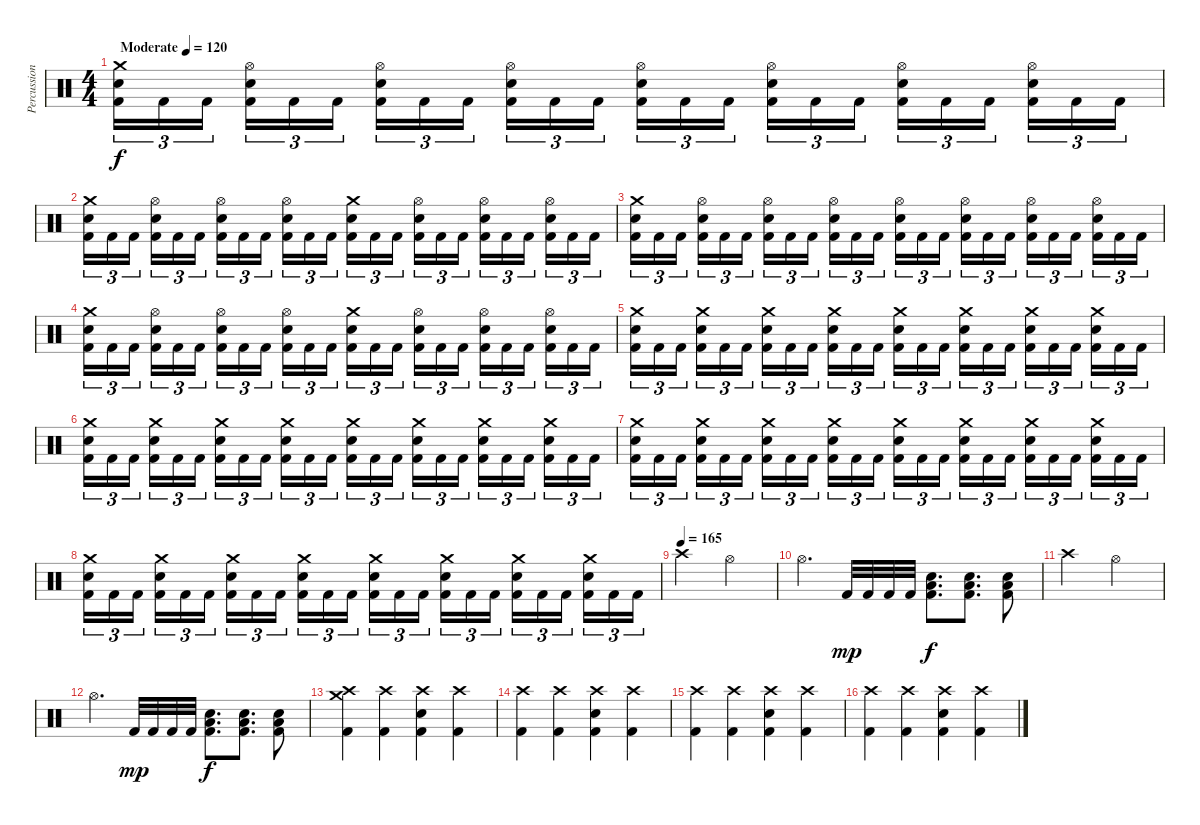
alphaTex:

\track ("Percussion" "Percussion") {instrument percussion}
\staff {score}
\articulation defaults
\ts (4 4)
\tempo (120 "Moderate")
\clef neutral
\ks c
("Crash medium (hit)" "Electric Snare (hit)" "Kick (hit) 2").16{tu (3 2) dy f} "Kick (hit) 2".16{tu (3 2)} "Kick (hit) 2".16{tu (3 2) beam splitsecondary} ("Hi-Hat (open)" "Electric Snare (hit)" "Kick (hit) 2").16{tu (3 2)} "Kick (hit) 2".16{tu (3 2)} "Kick (hit) 2".16{tu (3 2)} ("Hi-Hat (open)" "Electric Snare (hit)" "Kick (hit) 2").16{tu (3 2)} "Kick (hit) 2".16{tu (3 2)} "Kick (hit) 2".16{tu (3 2) beam splitsecondary} ("Hi-Hat (open)" "Electric Snare (hit)" "Kick (hit) 2").16{tu (3 2)} "Kick (hit) 2".16{tu (3 2)} "Kick (hit) 2".16{tu (3 2)} ("Hi-Hat (open)" "Electric Snare (hit)" "Kick (hit) 2").16{tu (3 2)} "Kick (hit) 2".16{tu (3 2)} "Kick (hit) 2".16{tu (3 2) beam splitsecondary} ("Hi-Hat (open)" "Electric Snare (hit)" "Kick (hit) 2").16{tu (3 2)} "Kick (hit) 2".16{tu (3 2)} "Kick (hit) 2".16{tu (3 2)} ("Hi-Hat (open)" "Electric Snare (hit)" "Kick (hit) 2").16{tu (3 2)} "Kick (hit) 2".16{tu (3 2)} "Kick (hit) 2".16{tu (3 2) beam splitsecondary} ("Hi-Hat (open)" "Electric Snare (hit)" "Kick (hit) 2").16{tu (3 2)} "Kick (hit) 2".16{tu (3 2)} "Kick (hit) 2".16{tu (3 2)} |
("Crash medium (hit)" "Electric Snare (hit)" "Kick (hit) 2").16{tu (3 2)} "Kick (hit) 2".16{tu (3 2)} "Kick (hit) 2".16{tu (3 2) beam splitsecondary} ("Hi-Hat (open)" "Electric Snare (hit)" "Kick (hit) 2").16{tu (3 2)} "Kick (hit) 2".16{tu (3 2)} "Kick (hit) 2".16{tu (3 2)} ("Hi-Hat (open)" "Electric Snare (hit)" "Kick (hit) 2").16{tu (3 2)} "Kick (hit) 2".16{tu (3 2)} "Kick (hit) 2".16{tu (3 2) beam splitsecondary} ("Hi-Hat (open)" "Electric Snare (hit)" "Kick (hit) 2").16{tu (3 2)} "Kick (hit) 2".16{tu (3 2)} "Kick (hit) 2".16{tu (3 2)} ("Crash medium (hit)" "Electric Snare (hit)" "Kick (hit) 2").16{tu (3 2)} "Kick (hit) 2".16{tu (3 2)} "Kick (hit) 2".16{tu (3 2) beam splitsecondary} ("Hi-Hat (open)" "Electric Snare (hit)" "Kick (hit) 2").16{tu (3 2)} "Kick (hit) 2".16{tu (3 2)} "Kick (hit) 2".16{tu (3 2)} ("Hi-Hat (open)" "Electric Snare (hit)" "Kick (hit) 2").16{tu (3 2)} "Kick (hit) 2".16{tu (3 2)} "Kick (hit) 2".16{tu (3 2) beam splitsecondary} ("Hi-Hat (open)" "Electric Snare (hit)" "Kick (hit) 2").16{tu (3 2)} "Kick (hit) 2".16{tu (3 2)} "Kick (hit) 2".16{tu (3 2)} |
("Crash medium (hit)" "Electric Snare (hit)" "Kick (hit) 2").16{tu (3 2)} "Kick (hit) 2".16{tu (3 2)} "Kick (hit) 2".16{tu (3 2) beam splitsecondary} ("Hi-Hat (open)" "Electric Snare (hit)" "Kick (hit) 2").16{tu (3 2)} "Kick (hit) 2".16{tu (3 2)} "Kick (hit) 2".16{tu (3 2)} ("Hi-Hat (open)" "Electric Snare (hit)" "Kick (hit) 2").16{tu (3 2)} "Kick (hit) 2".16{tu (3 2)} "Kick (hit) 2".16{tu (3 2) beam splitsecondary} ("Hi-Hat (open)" "Electric Snare (hit)" "Kick (hit) 2").16{tu (3 2)} "Kick (hit) 2".16{tu (3 2)} "Kick (hit) 2".16{tu (3 2)} ("Hi-Hat (open)" "Electric Snare (hit)" "Kick (hit) 2").16{tu (3 2)} "Kick (hit) 2".16{tu (3 2)} "Kick (hit) 2".16{tu (3 2) beam splitsecondary} ("Hi-Hat (open)" "Electric Snare (hit)" "Kick (hit) 2").16{tu (3 2)} "Kick (hit) 2".16{tu (3 2)} "Kick (hit) 2".16{tu (3 2)} ("Hi-Hat (open)" "Electric Snare (hit)" "Kick (hit) 2").16{tu (3 2)} "Kick (hit) 2".16{tu (3 2)} "Kick (hit) 2".16{tu (3 2) beam splitsecondary} ("Hi-Hat (open)" "Electric Snare (hit)" "Kick (hit) 2").16{tu (3 2)} "Kick (hit) 2".16{tu (3 2)} "Kick (hit) 2".16{tu (3 2)} |
("Crash medium (hit)" "Electric Snare (hit)" "Kick (hit) 2").16{tu (3 2)} "Kick (hit) 2".16{tu (3 2)} "Kick (hit) 2".16{tu (3 2) beam splitsecondary} ("Hi-Hat (open)" "Electric Snare (hit)" "Kick (hit) 2").16{tu (3 2)} "Kick (hit) 2".16{tu (3 2)} "Kick (hit) 2".16{tu (3 2)} ("Hi-Hat (open)" "Electric Snare (hit)" "Kick (hit) 2").16{tu (3 2)} "Kick (hit) 2".16{tu (3 2)} "Kick (hit) 2".16{tu (3 2) beam splitsecondary} ("Hi-Hat (open)" "Electric Snare (hit)" "Kick (hit) 2").16{tu (3 2)} "Kick (hit) 2".16{tu (3 2)} "Kick (hit) 2".16{tu (3 2)} ("Crash medium (hit)" "Electric Snare (hit)" "Kick (hit) 2").16{tu (3 2)} "Kick (hit) 2".16{tu (3 2)} "Kick (hit) 2".16{tu (3 2) beam splitsecondary} ("Hi-Hat (open)" "Electric Snare (hit)" "Kick (hit) 2").16{tu (3 2)} "Kick (hit) 2".16{tu (3 2)} "Kick (hit) 2".16{tu (3 2)} ("Hi-Hat (open)" "Electric Snare (hit)" "Kick (hit) 2").16{tu (3 2)} "Kick (hit) 2".16{tu (3 2)} "Kick (hit) 2".16{tu (3 2) beam splitsecondary} ("Hi-Hat (open)" "Electric Snare (hit)" "Kick (hit) 2").16{tu (3 2)} "Kick (hit) 2".16{tu (3 2)} "Kick (hit) 2".16{tu (3 2)} |
("Crash medium (hit)" "Electric Snare (hit)" "Kick (hit) 2").16{tu (3 2)} "Kick (hit) 2".16{tu (3 2)} "Kick (hit) 2".16{tu (3 2) beam splitsecondary} ("Crash medium (hit)" "Electric Snare (hit)" "Kick (hit) 2").16{tu (3 2)} "Kick (hit) 2".16{tu (3 2)} "Kick (hit) 2".16{tu (3 2)} ("Crash medium (hit)" "Electric Snare (hit)" "Kick (hit) 2").16{tu (3 2)} "Kick (hit) 2".16{tu (3 2)} "Kick (hit) 2".16{tu (3 2) beam splitsecondary} ("Crash medium (hit)" "Electric Snare (hit)" "Kick (hit) 2").16{tu (3 2)} "Kick (hit) 2".16{tu (3 2)} "Kick (hit) 2".16{tu (3 2)} ("Crash medium (hit)" "Electric Snare (hit)" "Kick (hit) 2").16{tu (3 2)} "Kick (hit) 2".16{tu (3 2)} "Kick (hit) 2".16{tu (3 2) beam splitsecondary} ("Crash medium (hit)" "Electric Snare (hit)" "Kick (hit) 2").16{tu (3 2)} "Kick (hit) 2".16{tu (3 2)} "Kick (hit) 2".16{tu (3 2)} ("Crash medium (hit)" "Electric Snare (hit)" "Kick (hit) 2").16{tu (3 2)} "Kick (hit) 2".16{tu (3 2)} "Kick (hit) 2".16{tu (3 2) beam splitsecondary} ("Crash medium (hit)" "Electric Snare (hit)" "Kick (hit) 2").16{tu (3 2)} "Kick (hit) 2".16{tu (3 2)} "Kick (hit) 2".16{tu (3 2)} |
("Crash medium (hit)" "Electric Snare (hit)" "Kick (hit) 2").16{tu (3 2)} "Kick (hit) 2".16{tu (3 2)} "Kick (hit) 2".16{tu (3 2) beam splitsecondary} ("Crash medium (hit)" "Electric Snare (hit)" "Kick (hit) 2").16{tu (3 2)} "Kick (hit) 2".16{tu (3 2)} "Kick (hit) 2".16{tu (3 2)} ("Crash medium (hit)" "Electric Snare (hit)" "Kick (hit) 2").16{tu (3 2)} "Kick (hit) 2".16{tu (3 2)} "Kick (hit) 2".16{tu (3 2) beam splitsecondary} ("Crash medium (hit)" "Electric Snare (hit)" "Kick (hit) 2").16{tu (3 2)} "Kick (hit) 2".16{tu (3 2)} "Kick (hit) 2".16{tu (3 2)} ("Crash medium (hit)" "Electric Snare (hit)" "Kick (hit) 2").16{tu (3 2)} "Kick (hit) 2".16{tu (3 2)} "Kick (hit) 2".16{tu (3 2) beam splitsecondary} ("Crash medium (hit)" "Electric Snare (hit)" "Kick (hit) 2").16{tu (3 2)} "Kick (hit) 2".16{tu (3 2)} "Kick (hit) 2".16{tu (3 2)} ("Crash medium (hit)" "Electric Snare (hit)" "Kick (hit) 2").16{tu (3 2)} "Kick (hit) 2".16{tu (3 2)} "Kick (hit) 2".16{tu (3 2) beam splitsecondary} ("Crash medium (hit)" "Electric Snare (hit)" "Kick (hit) 2").16{tu (3 2)} "Kick (hit) 2".16{tu (3 2)} "Kick (hit) 2".16{tu (3 2)} |
("Crash medium (hit)" "Electric Snare (hit)" "Kick (hit) 2").16{tu (3 2)} "Kick (hit) 2".16{tu (3 2)} "Kick (hit) 2".16{tu (3 2) beam splitsecondary} ("Crash medium (hit)" "Electric Snare (hit)" "Kick (hit) 2").16{tu (3 2)} "Kick (hit) 2".16{tu (3 2)} "Kick (hit) 2".16{tu (3 2)} ("Crash medium (hit)" "Electric Snare (hit)" "Kick (hit) 2").16{tu (3 2)} "Kick (hit) 2".16{tu (3 2)} "Kick (hit) 2".16{tu (3 2) beam splitsecondary} ("Crash medium (hit)" "Electric Snare (hit)" "Kick (hit) 2").16{tu (3 2)} "Kick (hit) 2".16{tu (3 2)} "Kick (hit) 2".16{tu (3 2)} ("Crash medium (hit)" "Electric Snare (hit)" "Kick (hit) 2").16{tu (3 2)} "Kick (hit) 2".16{tu (3 2)} "Kick (hit) 2".16{tu (3 2) beam splitsecondary} ("Crash medium (hit)" "Electric Snare (hit)" "Kick (hit) 2").16{tu (3 2)} "Kick (hit) 2".16{tu (3 2)} "Kick (hit) 2".16{tu (3 2)} ("Crash medium (hit)" "Electric Snare (hit)" "Kick (hit) 2").16{tu (3 2)} "Kick (hit) 2".16{tu (3 2)} "Kick (hit) 2".16{tu (3 2) beam splitsecondary} ("Crash medium (hit)" "Electric Snare (hit)" "Kick (hit) 2").16{tu (3 2)} "Kick (hit) 2".16{tu (3 2)} "Kick (hit) 2".16{tu (3 2)} |
("Crash medium (hit)" "Electric Snare (hit)" "Kick (hit) 2").16{tu (3 2)} "Kick (hit) 2".16{tu (3 2)} "Kick (hit) 2".16{tu (3 2) beam splitsecondary} ("Crash medium (hit)" "Electric Snare (hit)" "Kick (hit) 2").16{tu (3 2)} "Kick (hit) 2".16{tu (3 2)} "Kick (hit) 2".16{tu (3 2)} ("Crash medium (hit)" "Electric Snare (hit)" "Kick (hit) 2").16{tu (3 2)} "Kick (hit) 2".16{tu (3 2)} "Kick (hit) 2".16{tu (3 2) beam splitsecondary} ("Crash medium (hit)" "Electric Snare (hit)" "Kick (hit) 2").16{tu (3 2)} "Kick (hit) 2".16{tu (3 2)} "Kick (hit) 2".16{tu (3 2)} ("Crash medium (hit)" "Electric Snare (hit)" "Kick (hit) 2").16{tu (3 2)} "Kick (hit) 2".16{tu (3 2)} "Kick (hit) 2".16{tu (3 2) beam splitsecondary} ("Crash medium (hit)" "Electric Snare (hit)" "Kick (hit) 2").16{tu (3 2)} "Kick (hit) 2".16{tu (3 2)} "Kick (hit) 2".16{tu (3 2)} ("Crash medium (hit)" "Electric Snare (hit)" "Kick (hit) 2").16{tu (3 2)} "Kick (hit) 2".16{tu (3 2)} "Kick (hit) 2".16{tu (3 2) beam splitsecondary} ("Crash medium (hit)" "Electric Snare (hit)" "Kick (hit) 2").16{tu (3 2)} "Kick (hit) 2".16{tu (3 2)} "Kick (hit) 2".16{tu (3 2)} |
\tempo (165)
"Crash high (hit)".2 "Hi-Hat (open)".2 |
"Hi-Hat (open)".4{d} "Kick (hit) 2".32{dy mp} "Kick (hit) 2".32 "Kick (hit) 2".32 "Kick (hit) 2".32 ("Electric Snare (hit)" "Low Floor Tom (hit)" "Kick (hit) 2").8{d dy f} ("Electric Snare (hit)" "Low Floor Tom (hit)" "Kick (hit) 2").8{d} ("Electric Snare (hit)" "Low Floor Tom (hit)" "Kick (hit) 2").8 |
"Crash high (hit)".2 "Hi-Hat (open)".2 |
"Hi-Hat (open)".4{d} "Kick (hit) 2".32{dy mp} "Kick (hit) 2".32 "Kick (hit) 2".32 "Kick (hit) 2".32 ("Electric Snare (hit)" "Low Floor Tom (hit)" "Kick (hit) 2").8{d dy f} ("Electric Snare (hit)" "Low Floor Tom (hit)" "Kick (hit) 2").8{d} ("Electric Snare (hit)" "Low Floor Tom (hit)" "Kick (hit) 2").8 |
("Crash medium (hit)" "Crash high (hit)" "Kick (hit) 2").4 ("Crash high (hit)" "Kick (hit) 2").4 ("Crash high (hit)" "Electric Snare (hit)" "Kick (hit) 2").4 ("Crash high (hit)" "Kick (hit) 2").4 |
("Crash high (hit)" "Kick (hit) 2").4 ("Crash high (hit)" "Kick (hit) 2").4 ("Crash high (hit)" "Electric Snare (hit)" "Kick (hit) 2").4 ("Crash high (hit)" "Kick (hit) 2").4 |
("Crash high (hit)" "Kick (hit) 2").4 ("Crash high (hit)" "Kick (hit) 2").4 ("Crash high (hit)" "Electric Snare (hit)" "Kick (hit) 2").4 ("Crash high (hit)" "Kick (hit) 2").4 |
("Crash high (hit)" "Kick (hit) 2").4 ("Crash high (hit)" "Kick (hit) 2").4 ("Crash high (hit)" "Electric Snare (hit)" "Kick (hit) 2").4 ("Crash high (hit)" "Kick (hit) 2").4
